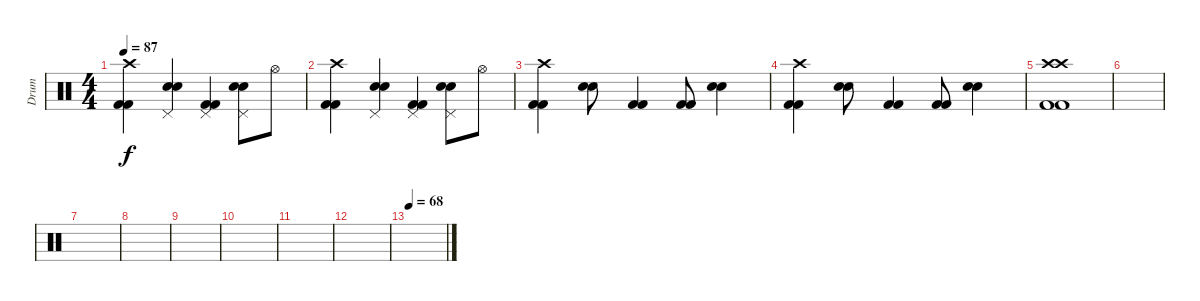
\track ("Drum" "Drum") {instrument percussion}
\staff {score}
\articulation defaults
\ts (4 4)
\tempo 87
\clef neutral
\ks c
("Crash high (hit)" "Kick (hit) 2" "Kick (hit) 2").4{dy f} ("Pedal Hi-Hat (hit)" "Electric Snare (hit)" "Electric Snare (hit)").4 ("Pedal Hi-Hat (hit)" "Kick (hit) 2" "Kick (hit) 2").4 ("Pedal Hi-Hat (hit)" "Electric Snare (hit)" "Electric Snare (hit)").8 "Hi-Hat (open)".8 |
("Crash high (hit)" "Kick (hit) 2" "Kick (hit) 2").4 ("Pedal Hi-Hat (hit)" "Electric Snare (hit)" "Electric Snare (hit)").4 ("Pedal Hi-Hat (hit)" "Kick (hit) 2" "Kick (hit) 2").4 ("Pedal Hi-Hat (hit)" "Electric Snare (hit)" "Electric Snare (hit)").8 "Hi-Hat (open)".8 |
("Crash high (hit)" "Kick (hit) 2" "Kick (hit) 2").4 ("Electric Snare (hit)" "Electric Snare (hit)").8 ("Kick (hit) 2" "Kick (hit) 2").4 ("Kick (hit) 2" "Kick (hit) 2").8 ("Electric Snare (hit)" "Electric Snare (hit)").4 |
("Crash high (hit)" "Kick (hit) 2" "Kick (hit) 2").4 ("Electric Snare (hit)" "Electric Snare (hit)").8 ("Kick (hit) 2" "Kick (hit) 2").4 ("Kick (hit) 2" "Kick (hit) 2").8 ("Electric Snare (hit)" "Electric Snare (hit)").4 |
("Crash high (hit)" "Crash high (hit)" "Kick (hit) 2" "Kick (hit) 2").1 |
|
|
|
|
|
|
|
\tempo 68
